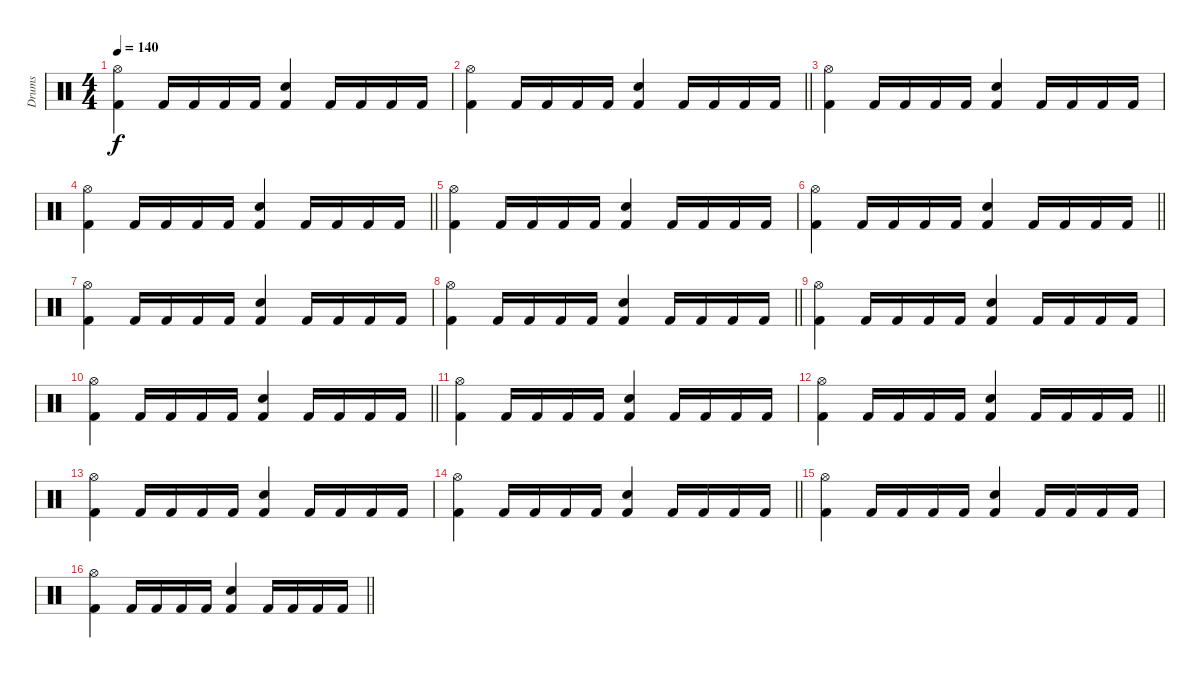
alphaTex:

\track ("Drums" "Drums") {instrument percussion}
\staff {score}
\articulation defaults
\ts (4 4)
\tempo 140
\clef neutral
\ks c
("Hi-Hat (open)" "Kick (hit) 2").4{dy f} "Kick (hit) 2".16 "Kick (hit) 2".16 "Kick (hit) 2".16 "Kick (hit) 2".16 ("Snare (hit) 2" "Kick (hit) 2").4 "Kick (hit) 2".16 "Kick (hit) 2".16 "Kick (hit) 2".16 "Kick (hit) 2".16 |
\barLineRight lightlight
("Hi-Hat (open)" "Kick (hit) 2").4 "Kick (hit) 2".16 "Kick (hit) 2".16 "Kick (hit) 2".16 "Kick (hit) 2".16 ("Snare (hit) 2" "Kick (hit) 2").4 "Kick (hit) 2".16 "Kick (hit) 2".16 "Kick (hit) 2".16 "Kick (hit) 2".16 |
("Hi-Hat (open)" "Kick (hit) 2").4 "Kick (hit) 2".16 "Kick (hit) 2".16 "Kick (hit) 2".16 "Kick (hit) 2".16 ("Snare (hit) 2" "Kick (hit) 2").4 "Kick (hit) 2".16 "Kick (hit) 2".16 "Kick (hit) 2".16 "Kick (hit) 2".16 |
\barLineRight lightlight
("Hi-Hat (open)" "Kick (hit) 2").4 "Kick (hit) 2".16 "Kick (hit) 2".16 "Kick (hit) 2".16 "Kick (hit) 2".16 ("Snare (hit) 2" "Kick (hit) 2").4 "Kick (hit) 2".16 "Kick (hit) 2".16 "Kick (hit) 2".16 "Kick (hit) 2".16 |
("Hi-Hat (open)" "Kick (hit) 2").4 "Kick (hit) 2".16 "Kick (hit) 2".16 "Kick (hit) 2".16 "Kick (hit) 2".16 ("Snare (hit) 2" "Kick (hit) 2").4 "Kick (hit) 2".16 "Kick (hit) 2".16 "Kick (hit) 2".16 "Kick (hit) 2".16 |
\barLineRight lightlight
("Hi-Hat (open)" "Kick (hit) 2").4 "Kick (hit) 2".16 "Kick (hit) 2".16 "Kick (hit) 2".16 "Kick (hit) 2".16 ("Snare (hit) 2" "Kick (hit) 2").4 "Kick (hit) 2".16 "Kick (hit) 2".16 "Kick (hit) 2".16 "Kick (hit) 2".16 |
("Hi-Hat (open)" "Kick (hit) 2").4 "Kick (hit) 2".16 "Kick (hit) 2".16 "Kick (hit) 2".16 "Kick (hit) 2".16 ("Snare (hit) 2" "Kick (hit) 2").4 "Kick (hit) 2".16 "Kick (hit) 2".16 "Kick (hit) 2".16 "Kick (hit) 2".16 |
\barLineRight lightlight
("Hi-Hat (open)" "Kick (hit) 2").4 "Kick (hit) 2".16 "Kick (hit) 2".16 "Kick (hit) 2".16 "Kick (hit) 2".16 ("Snare (hit) 2" "Kick (hit) 2").4 "Kick (hit) 2".16 "Kick (hit) 2".16 "Kick (hit) 2".16 "Kick (hit) 2".16 |
("Hi-Hat (open)" "Kick (hit) 2").4 "Kick (hit) 2".16 "Kick (hit) 2".16 "Kick (hit) 2".16 "Kick (hit) 2".16 ("Snare (hit) 2" "Kick (hit) 2").4 "Kick (hit) 2".16 "Kick (hit) 2".16 "Kick (hit) 2".16 "Kick (hit) 2".16 |
\barLineRight lightlight
("Hi-Hat (open)" "Kick (hit) 2").4 "Kick (hit) 2".16 "Kick (hit) 2".16 "Kick (hit) 2".16 "Kick (hit) 2".16 ("Snare (hit) 2" "Kick (hit) 2").4 "Kick (hit) 2".16 "Kick (hit) 2".16 "Kick (hit) 2".16 "Kick (hit) 2".16 |
("Hi-Hat (open)" "Kick (hit) 2").4 "Kick (hit) 2".16 "Kick (hit) 2".16 "Kick (hit) 2".16 "Kick (hit) 2".16 ("Snare (hit) 2" "Kick (hit) 2").4 "Kick (hit) 2".16 "Kick (hit) 2".16 "Kick (hit) 2".16 "Kick (hit) 2".16 |
\barLineRight lightlight
("Hi-Hat (open)" "Kick (hit) 2").4 "Kick (hit) 2".16 "Kick (hit) 2".16 "Kick (hit) 2".16 "Kick (hit) 2".16 ("Snare (hit) 2" "Kick (hit) 2").4 "Kick (hit) 2".16 "Kick (hit) 2".16 "Kick (hit) 2".16 "Kick (hit) 2".16 |
("Hi-Hat (open)" "Kick (hit) 2").4 "Kick (hit) 2".16 "Kick (hit) 2".16 "Kick (hit) 2".16 "Kick (hit) 2".16 ("Snare (hit) 2" "Kick (hit) 2").4 "Kick (hit) 2".16 "Kick (hit) 2".16 "Kick (hit) 2".16 "Kick (hit) 2".16 |
\barLineRight lightlight
("Hi-Hat (open)" "Kick (hit) 2").4 "Kick (hit) 2".16 "Kick (hit) 2".16 "Kick (hit) 2".16 "Kick (hit) 2".16 ("Snare (hit) 2" "Kick (hit) 2").4 "Kick (hit) 2".16 "Kick (hit) 2".16 "Kick (hit) 2".16 "Kick (hit) 2".16 |
("Hi-Hat (open)" "Kick (hit) 2").4 "Kick (hit) 2".16 "Kick (hit) 2".16 "Kick (hit) 2".16 "Kick (hit) 2".16 ("Snare (hit) 2" "Kick (hit) 2").4 "Kick (hit) 2".16 "Kick (hit) 2".16 "Kick (hit) 2".16 "Kick (hit) 2".16 |
\barLineRight lightlight
("Hi-Hat (open)" "Kick (hit) 2").4 "Kick (hit) 2".16 "Kick (hit) 2".16 "Kick (hit) 2".16 "Kick (hit) 2".16 ("Snare (hit) 2" "Kick (hit) 2").4 "Kick (hit) 2".16 "Kick (hit) 2".16 "Kick (hit) 2".16 "Kick (hit) 2".16
